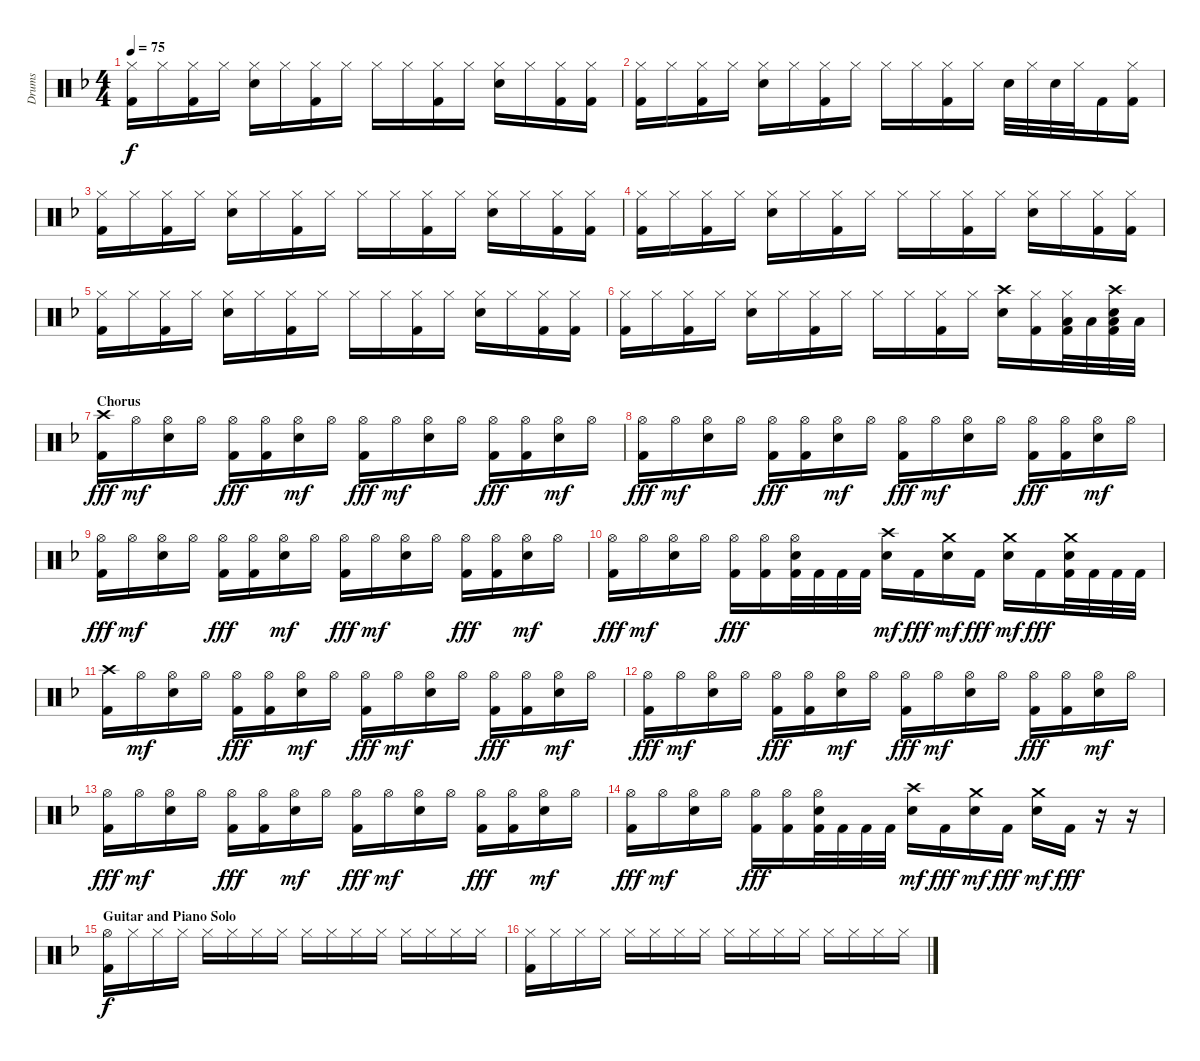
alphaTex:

\track ("Drums" "Drums") {instrument percussion}
\staff {score}
\articulation defaults
\ts (4 4)
\tempo 75
\clef neutral
\ks dminor
("Hi-Hat (closed)" "Kick (hit) 2").16{dy f} "Hi-Hat (closed)".16 ("Hi-Hat (closed)" "Kick (hit) 2").16 "Hi-Hat (closed)".16 ("Hi-Hat (closed)" "Snare (hit) 2").16 "Hi-Hat (closed)".16 ("Hi-Hat (closed)" "Kick (hit) 2").16 "Hi-Hat (closed)".16 "Hi-Hat (closed)".16 "Hi-Hat (closed)".16 ("Hi-Hat (closed)" "Kick (hit) 2").16 "Hi-Hat (closed)".16 ("Hi-Hat (closed)" "Snare (hit) 2").16 "Hi-Hat (closed)".16 ("Hi-Hat (closed)" "Kick (hit) 2").16 ("Hi-Hat (closed)" "Kick (hit) 2").16 |
("Hi-Hat (closed)" "Kick (hit) 2").16 "Hi-Hat (closed)".16 ("Hi-Hat (closed)" "Kick (hit) 2").16 "Hi-Hat (closed)".16 ("Hi-Hat (closed)" "Snare (hit) 2").16 "Hi-Hat (closed)".16 ("Hi-Hat (closed)" "Kick (hit) 2").16 "Hi-Hat (closed)".16 "Hi-Hat (closed)".16 "Hi-Hat (closed)".16 ("Hi-Hat (closed)" "Kick (hit) 2").16 "Hi-Hat (closed)".16 "Snare (hit) 2".32 "Hi-Hat (closed)".32 "Snare (hit) 2".32 "Hi-Hat (closed)".32 "Kick (hit) 2".16 ("Hi-Hat (closed)" "Kick (hit) 2").16 |
("Hi-Hat (closed)" "Kick (hit) 2").16 "Hi-Hat (closed)".16 ("Hi-Hat (closed)" "Kick (hit) 2").16 "Hi-Hat (closed)".16 ("Hi-Hat (closed)" "Snare (hit) 2").16 "Hi-Hat (closed)".16 ("Hi-Hat (closed)" "Kick (hit) 2").16 "Hi-Hat (closed)".16 "Hi-Hat (closed)".16 "Hi-Hat (closed)".16 ("Hi-Hat (closed)" "Kick (hit) 2").16 "Hi-Hat (closed)".16 ("Hi-Hat (closed)" "Snare (hit) 2").16 "Hi-Hat (closed)".16 ("Hi-Hat (closed)" "Kick (hit) 2").16 ("Hi-Hat (closed)" "Kick (hit) 2").16 |
("Hi-Hat (closed)" "Kick (hit) 2").16 "Hi-Hat (closed)".16 ("Hi-Hat (closed)" "Kick (hit) 2").16 "Hi-Hat (closed)".16 ("Hi-Hat (closed)" "Snare (hit) 2").16 "Hi-Hat (closed)".16 ("Hi-Hat (closed)" "Kick (hit) 2").16 "Hi-Hat (closed)".16 "Hi-Hat (closed)".16 "Hi-Hat (closed)".16 ("Hi-Hat (closed)" "Kick (hit) 2").16 "Hi-Hat (closed)".16 ("Hi-Hat (closed)" "Snare (hit) 2").16 "Hi-Hat (closed)".16 ("Hi-Hat (closed)" "Kick (hit) 2").16 ("Hi-Hat (closed)" "Kick (hit) 2").16 |
("Hi-Hat (closed)" "Kick (hit) 2").16 "Hi-Hat (closed)".16 ("Hi-Hat (closed)" "Kick (hit) 2").16 "Hi-Hat (closed)".16 ("Hi-Hat (closed)" "Snare (hit) 2").16 "Hi-Hat (closed)".16 ("Hi-Hat (closed)" "Kick (hit) 2").16 "Hi-Hat (closed)".16 "Hi-Hat (closed)".16 "Hi-Hat (closed)".16 ("Hi-Hat (closed)" "Kick (hit) 2").16 "Hi-Hat (closed)".16 ("Hi-Hat (closed)" "Snare (hit) 2").16 "Hi-Hat (closed)".16 ("Hi-Hat (closed)" "Kick (hit) 2").16 ("Hi-Hat (closed)" "Kick (hit) 2").16 |
("Hi-Hat (closed)" "Kick (hit) 2").16 "Hi-Hat (closed)".16 ("Hi-Hat (closed)" "Kick (hit) 2").16 "Hi-Hat (closed)".16 ("Hi-Hat (closed)" "Snare (hit) 2").16 "Hi-Hat (closed)".16 ("Hi-Hat (closed)" "Kick (hit) 2").16 "Hi-Hat (closed)".16 "Hi-Hat (closed)".16 "Hi-Hat (closed)".16 ("Hi-Hat (closed)" "Kick (hit) 2").16 "Hi-Hat (closed)".16 ("Crash high (hit)" "Snare (hit) 2").16 ("Hi-Hat (closed)" "Kick (hit) 2").16 ("Hi-Hat (closed)" "Kick (hit) 2" "Low Tom (hit)").32 "Low Tom (hit)".32 ("Crash high (hit)" "Snare (hit) 2" "Low Floor Tom (hit)" "Kick (hit) 2").32 "Low Floor Tom (hit)".32 |
\section ("" "Chorus")
("Crash high (hit)" "Kick (hit) 2").16{dy fff} "Hi-Hat (open)".16{dy mf} ("Hi-Hat (open)" "Snare (hit) 2").16 "Hi-Hat (open)".16 ("Hi-Hat (open)" "Kick (hit) 2").16{dy fff} ("Hi-Hat (open)" "Kick (hit) 2").16 ("Hi-Hat (open)" "Snare (hit) 2").16{dy mf} "Hi-Hat (open)".16 ("Hi-Hat (open)" "Kick (hit) 2").16{dy fff} "Hi-Hat (open)".16{dy mf} ("Hi-Hat (open)" "Snare (hit) 2").16 "Hi-Hat (open)".16 ("Hi-Hat (open)" "Kick (hit) 2").16{dy fff} ("Hi-Hat (open)" "Kick (hit) 2").16 ("Hi-Hat (open)" "Snare (hit) 2").16{dy mf} "Hi-Hat (open)".16 |
("Hi-Hat (open)" "Kick (hit) 2").16{dy fff} "Hi-Hat (open)".16{dy mf} ("Hi-Hat (open)" "Snare (hit) 2").16 "Hi-Hat (open)".16 ("Hi-Hat (open)" "Kick (hit) 2").16{dy fff} ("Hi-Hat (open)" "Kick (hit) 2").16 ("Hi-Hat (open)" "Snare (hit) 2").16{dy mf} "Hi-Hat (open)".16 ("Hi-Hat (open)" "Kick (hit) 2").16{dy fff} "Hi-Hat (open)".16{dy mf} ("Hi-Hat (open)" "Snare (hit) 2").16 "Hi-Hat (open)".16 ("Hi-Hat (open)" "Kick (hit) 2").16{dy fff} ("Hi-Hat (open)" "Kick (hit) 2").16 ("Hi-Hat (open)" "Snare (hit) 2").16{dy mf} "Hi-Hat (open)".16 |
("Hi-Hat (open)" "Kick (hit) 2").16{dy fff} "Hi-Hat (open)".16{dy mf} ("Hi-Hat (open)" "Snare (hit) 2").16 "Hi-Hat (open)".16 ("Hi-Hat (open)" "Kick (hit) 2").16{dy fff} ("Hi-Hat (open)" "Kick (hit) 2").16 ("Hi-Hat (open)" "Snare (hit) 2").16{dy mf} "Hi-Hat (open)".16 ("Hi-Hat (open)" "Kick (hit) 2").16{dy fff} "Hi-Hat (open)".16{dy mf} ("Hi-Hat (open)" "Snare (hit) 2").16 "Hi-Hat (open)".16 ("Hi-Hat (open)" "Kick (hit) 2").16{dy fff} ("Hi-Hat (open)" "Kick (hit) 2").16 ("Hi-Hat (open)" "Snare (hit) 2").16{dy mf} "Hi-Hat (open)".16 |
("Hi-Hat (open)" "Kick (hit) 2").16{dy fff} "Hi-Hat (open)".16{dy mf} ("Hi-Hat (open)" "Snare (hit) 2").16 "Hi-Hat (open)".16 ("Hi-Hat (open)" "Kick (hit) 2").16{dy fff} ("Hi-Hat (open)" "Kick (hit) 2").16 ("Hi-Hat (open)" "Snare (hit) 2" "Kick (hit) 2").32 "Kick (hit) 2".32 "Kick (hit) 2".32 "Kick (hit) 2".32 ("Crash high (hit)" "Snare (hit) 2").16{dy mf} "Kick (hit) 2".16{dy fff} ("Crash medium (hit)" "Snare (hit) 2").16{dy mf} "Kick (hit) 2".16{dy fff} ("Crash medium (hit)" "Snare (hit) 2").16{dy mf} "Kick (hit) 2".16{dy fff} ("Crash medium (hit)" "Snare (hit) 2" "Kick (hit) 2").32 "Kick (hit) 2".32 "Kick (hit) 2".32 "Kick (hit) 2".32 |
("Crash high (hit)" "Kick (hit) 2").16 "Hi-Hat (open)".16{dy mf} ("Hi-Hat (open)" "Snare (hit) 2").16 "Hi-Hat (open)".16 ("Hi-Hat (open)" "Kick (hit) 2").16{dy fff} ("Hi-Hat (open)" "Kick (hit) 2").16 ("Hi-Hat (open)" "Snare (hit) 2").16{dy mf} "Hi-Hat (open)".16 ("Hi-Hat (open)" "Kick (hit) 2").16{dy fff} "Hi-Hat (open)".16{dy mf} ("Hi-Hat (open)" "Snare (hit) 2").16 "Hi-Hat (open)".16 ("Hi-Hat (open)" "Kick (hit) 2").16{dy fff} ("Hi-Hat (open)" "Kick (hit) 2").16 ("Hi-Hat (open)" "Snare (hit) 2").16{dy mf} "Hi-Hat (open)".16 |
("Hi-Hat (open)" "Kick (hit) 2").16{dy fff} "Hi-Hat (open)".16{dy mf} ("Hi-Hat (open)" "Snare (hit) 2").16 "Hi-Hat (open)".16 ("Hi-Hat (open)" "Kick (hit) 2").16{dy fff} ("Hi-Hat (open)" "Kick (hit) 2").16 ("Hi-Hat (open)" "Snare (hit) 2").16{dy mf} "Hi-Hat (open)".16 ("Hi-Hat (open)" "Kick (hit) 2").16{dy fff} "Hi-Hat (open)".16{dy mf} ("Hi-Hat (open)" "Snare (hit) 2").16 "Hi-Hat (open)".16 ("Hi-Hat (open)" "Kick (hit) 2").16{dy fff} ("Hi-Hat (open)" "Kick (hit) 2").16 ("Hi-Hat (open)" "Snare (hit) 2").16{dy mf} "Hi-Hat (open)".16 |
("Hi-Hat (open)" "Kick (hit) 2").16{dy fff} "Hi-Hat (open)".16{dy mf} ("Hi-Hat (open)" "Snare (hit) 2").16 "Hi-Hat (open)".16 ("Hi-Hat (open)" "Kick (hit) 2").16{dy fff} ("Hi-Hat (open)" "Kick (hit) 2").16 ("Hi-Hat (open)" "Snare (hit) 2").16{dy mf} "Hi-Hat (open)".16 ("Hi-Hat (open)" "Kick (hit) 2").16{dy fff} "Hi-Hat (open)".16{dy mf} ("Hi-Hat (open)" "Snare (hit) 2").16 "Hi-Hat (open)".16 ("Hi-Hat (open)" "Kick (hit) 2").16{dy fff} ("Hi-Hat (open)" "Kick (hit) 2").16 ("Hi-Hat (open)" "Snare (hit) 2").16{dy mf} "Hi-Hat (open)".16 |
("Hi-Hat (open)" "Kick (hit) 2").16{dy fff} "Hi-Hat (open)".16{dy mf} ("Hi-Hat (open)" "Snare (hit) 2").16 "Hi-Hat (open)".16 ("Hi-Hat (open)" "Kick (hit) 2").16{dy fff} ("Hi-Hat (open)" "Kick (hit) 2").16 ("Hi-Hat (open)" "Snare (hit) 2" "Kick (hit) 2").32 "Kick (hit) 2".32 "Kick (hit) 2".32 "Kick (hit) 2".32 ("Crash high (hit)" "Snare (hit) 2").16{dy mf} "Kick (hit) 2".16{dy fff} ("Crash medium (hit)" "Snare (hit) 2").16{dy mf} "Kick (hit) 2".16{dy fff} ("Crash medium (hit)" "Snare (hit) 2").16{dy mf} "Kick (hit) 2".16{dy fff} r.16 r.16 |
\section ("" "Guitar and Piano Solo")
("Hi-Hat (open)" "Kick (hit) 2").16{dy f} "Hi-Hat (closed)".16 "Hi-Hat (closed)".16 "Hi-Hat (closed)".16 "Hi-Hat (closed)".16 "Hi-Hat (closed)".16 "Hi-Hat (closed)".16 "Hi-Hat (closed)".16 "Hi-Hat (closed)".16 "Hi-Hat (closed)".16 "Hi-Hat (closed)".16 "Hi-Hat (closed)".16 "Hi-Hat (closed)".16 "Hi-Hat (closed)".16 "Hi-Hat (closed)".16 "Hi-Hat (closed)".16 |
("Hi-Hat (closed)" "Kick (hit) 2").16 "Hi-Hat (closed)".16 "Hi-Hat (closed)".16 "Hi-Hat (closed)".16 "Hi-Hat (closed)".16 "Hi-Hat (closed)".16 "Hi-Hat (closed)".16 "Hi-Hat (closed)".16 "Hi-Hat (closed)".16 "Hi-Hat (closed)".16 "Hi-Hat (closed)".16 "Hi-Hat (closed)".16 "Hi-Hat (closed)".16 "Hi-Hat (closed)".16 "Hi-Hat (closed)".16 "Hi-Hat (closed)".16
